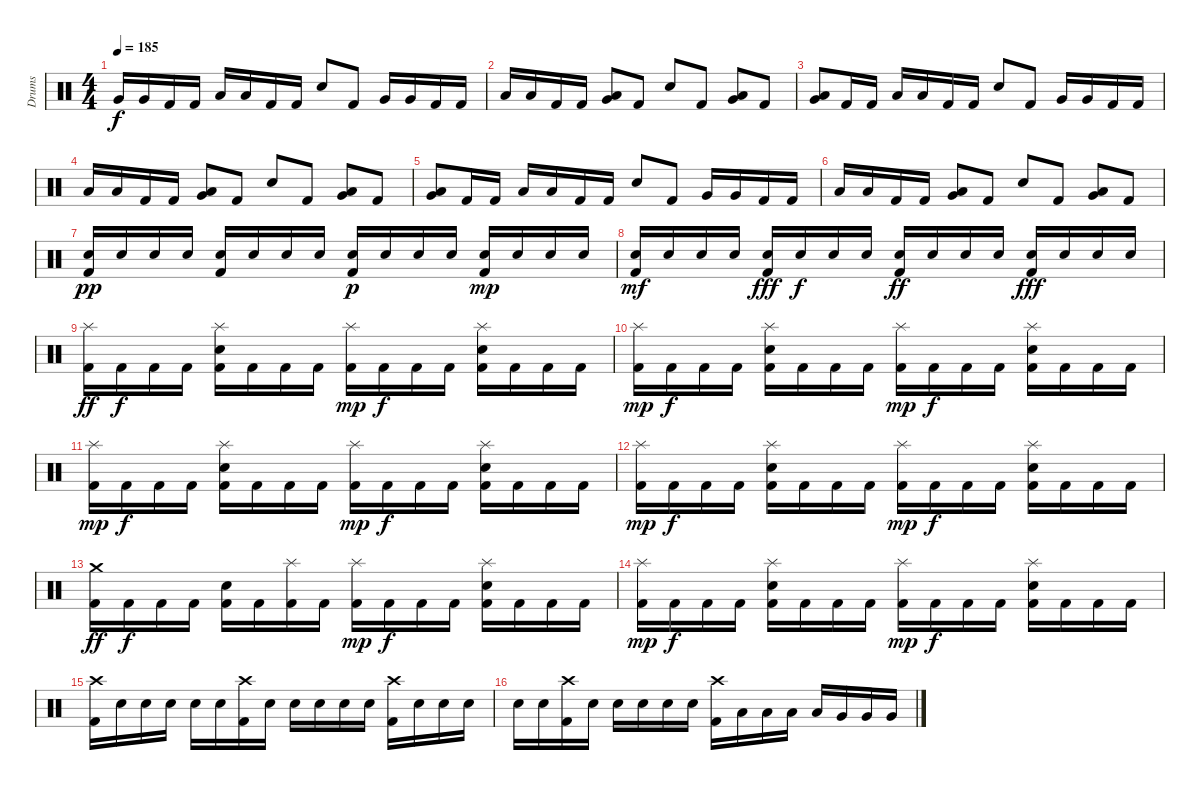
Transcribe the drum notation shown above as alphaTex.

\track ("Drums" "Drums") {instrument percussion}
\staff {score}
\articulation defaults
\ts (4 4)
\tempo 185
\clef neutral
\ks c "Very Low Tom (hit)".16{dy f} "Very Low Tom (hit)".16 "Kick (hit) 2".16 "Kick (hit) 2".16 "Low Floor Tom (hit)".16 "Low Floor Tom (hit)".16 "Kick (hit) 2".16 "Kick (hit) 2".16 "Snare (hit) 2".8 "Kick (hit) 2".8 "Very Low Tom (hit)".16 "Very Low Tom (hit)".16 "Kick (hit) 2".16 "Kick (hit) 2".16
|
"Low Floor Tom (hit)".16 "Low Floor Tom (hit)".16 "Kick (hit) 2".16 "Kick (hit) 2".16 ("Very Low Tom (hit)" "Low Floor Tom (hit)").8 "Kick (hit) 2".8 "Snare (hit) 2".8 "Kick (hit) 2".8 ("Low Floor Tom (hit)" "Very Low Tom (hit)").8 "Kick (hit) 2".8 |
("Low Floor Tom (hit)" "Very Low Tom (hit)").8 "Kick (hit) 2".16 "Kick (hit) 2".16 "Low Floor Tom (hit)".16 "Low Floor Tom (hit)".16 "Kick (hit) 2".16 "Kick (hit) 2".16 "Snare (hit) 2".8 "Kick (hit) 2".8 "Very Low Tom (hit)".16 "Very Low Tom (hit)".16 "Kick (hit) 2".16 "Kick (hit) 2".16 |
"Low Floor Tom (hit)".16 "Low Floor Tom (hit)".16 "Kick (hit) 2".16 "Kick (hit) 2".16 ("Very Low Tom (hit)" "Low Floor Tom (hit)").8 "Kick (hit) 2".8 "Snare (hit) 2".8 "Kick (hit) 2".8 ("Low Floor Tom (hit)" "Very Low Tom (hit)").8 "Kick (hit) 2".8 |
("Low Floor Tom (hit)" "Very Low Tom (hit)").8 "Kick (hit) 2".16 "Kick (hit) 2".16 "Low Floor Tom (hit)".16 "Low Floor Tom (hit)".16 "Kick (hit) 2".16 "Kick (hit) 2".16 "Snare (hit) 2".8 "Kick (hit) 2".8 "Very Low Tom (hit)".16 "Very Low Tom (hit)".16 "Kick (hit) 2".16 "Kick (hit) 2".16 |
"Low Floor Tom (hit)".16 "Low Floor Tom (hit)".16 "Kick (hit) 2".16 "Kick (hit) 2".16 ("Very Low Tom (hit)" "Low Floor Tom (hit)").8 "Kick (hit) 2".8 "Snare (hit) 2".8 "Kick (hit) 2".8 ("Low Floor Tom (hit)" "Very Low Tom (hit)").8 "Kick (hit) 2".8 |
("Kick (hit) 2" "Snare (hit) 2").16{dy pp} "Snare (hit) 2".16 "Snare (hit) 2".16 "Snare (hit) 2".16 ("Kick (hit) 2" "Snare (hit) 2").16 "Snare (hit) 2".16 "Snare (hit) 2".16 "Snare (hit) 2".16 ("Kick (hit) 2" "Snare (hit) 2").16{dy p} "Snare (hit) 2".16 "Snare (hit) 2".16 "Snare (hit) 2".16 ("Kick (hit) 2" "Snare (hit) 2").16{dy mp} "Snare (hit) 2".16 "Snare (hit) 2".16 "Snare (hit) 2".16 |
("Kick (hit) 2" "Snare (hit) 2").16{dy mf} "Snare (hit) 2".16 "Snare (hit) 2".16 "Snare (hit) 2".16 ("Kick (hit) 2" "Snare (hit) 2").16{dy fff} "Snare (hit) 2".16{dy f} "Snare (hit) 2".16 "Snare (hit) 2".16 ("Kick (hit) 2" "Snare (hit) 2").16{dy ff} "Snare (hit) 2".16 "Snare (hit) 2".16 "Snare (hit) 2".16 ("Kick (hit) 2" "Snare (hit) 2").16{dy fff} "Snare (hit) 2".16 "Snare (hit) 2".16 "Snare (hit) 2".16 |
("Splash (hit)" "Kick (hit) 2").16{dy ff} "Kick (hit) 2".16{dy f} "Kick (hit) 2".16 "Kick (hit) 2".16 ("Splash (hit)" "Snare (hit) 2" "Kick (hit) 2").16 "Kick (hit) 2".16 "Kick (hit) 2".16 "Kick (hit) 2".16 ("Splash (hit)" "Kick (hit) 2").16{dy mp} "Kick (hit) 2".16{dy f} "Kick (hit) 2".16 "Kick (hit) 2".16 ("Splash (hit)" "Snare (hit) 2" "Kick (hit) 2").16 "Kick (hit) 2".16 "Kick (hit) 2".16 "Kick (hit) 2".16 |
("Splash (hit)" "Kick (hit) 2").16{dy mp} "Kick (hit) 2".16{dy f} "Kick (hit) 2".16 "Kick (hit) 2".16 ("Splash (hit)" "Snare (hit) 2" "Kick (hit) 2").16 "Kick (hit) 2".16 "Kick (hit) 2".16 "Kick (hit) 2".16 ("Splash (hit)" "Kick (hit) 2").16{dy mp} "Kick (hit) 2".16{dy f} "Kick (hit) 2".16 "Kick (hit) 2".16 ("Splash (hit)" "Snare (hit) 2" "Kick (hit) 2").16 "Kick (hit) 2".16 "Kick (hit) 2".16 "Kick (hit) 2".16 |
("Splash (hit)" "Kick (hit) 2").16{dy mp} "Kick (hit) 2".16{dy f} "Kick (hit) 2".16 "Kick (hit) 2".16 ("Splash (hit)" "Snare (hit) 2" "Kick (hit) 2").16 "Kick (hit) 2".16 "Kick (hit) 2".16 "Kick (hit) 2".16 ("Splash (hit)" "Kick (hit) 2").16{dy mp} "Kick (hit) 2".16{dy f} "Kick (hit) 2".16 "Kick (hit) 2".16 ("Splash (hit)" "Snare (hit) 2" "Kick (hit) 2").16 "Kick (hit) 2".16 "Kick (hit) 2".16 "Kick (hit) 2".16 |
("Splash (hit)" "Kick (hit) 2").16{dy mp} "Kick (hit) 2".16{dy f} "Kick (hit) 2".16 "Kick (hit) 2".16 ("Splash (hit)" "Snare (hit) 2" "Kick (hit) 2").16 "Kick (hit) 2".16 "Kick (hit) 2".16 "Kick (hit) 2".16 ("Splash (hit)" "Kick (hit) 2").16{dy mp} "Kick (hit) 2".16{dy f} "Kick (hit) 2".16 "Kick (hit) 2".16 ("Splash (hit)" "Snare (hit) 2" "Kick (hit) 2").16 "Kick (hit) 2".16 "Kick (hit) 2".16 "Kick (hit) 2".16 |
("Crash medium (hit)" "Kick (hit) 2").16{dy ff} "Kick (hit) 2".16{dy f} "Kick (hit) 2".16 "Kick (hit) 2".16 ("Snare (hit) 2" "Kick (hit) 2").16 "Kick (hit) 2".16 ("Splash (hit)" "Kick (hit) 2").16 "Kick (hit) 2".16 ("Splash (hit)" "Kick (hit) 2").16{dy mp} "Kick (hit) 2".16{dy f} "Kick (hit) 2".16 "Kick (hit) 2".16 ("Splash (hit)" "Snare (hit) 2" "Kick (hit) 2").16 "Kick (hit) 2".16 "Kick (hit) 2".16 "Kick (hit) 2".16 |
("Splash (hit)" "Kick (hit) 2").16{dy mp} "Kick (hit) 2".16{dy f} "Kick (hit) 2".16 "Kick (hit) 2".16 ("Splash (hit)" "Snare (hit) 2" "Kick (hit) 2").16 "Kick (hit) 2".16 "Kick (hit) 2".16 "Kick (hit) 2".16 ("Splash (hit)" "Kick (hit) 2").16{dy mp} "Kick (hit) 2".16{dy f} "Kick (hit) 2".16 "Kick (hit) 2".16 ("Splash (hit)" "Snare (hit) 2" "Kick (hit) 2").16 "Kick (hit) 2".16 "Kick (hit) 2".16 "Kick (hit) 2".16 |
("Crash high (hit)" "Kick (hit) 2").16 "Snare (hit) 2".16 "Snare (hit) 2".16 "Snare (hit) 2".16 "Snare (hit) 2".16 "Snare (hit) 2".16 ("Crash high (hit)" "Kick (hit) 2").16 "Snare (hit) 2".16 "Snare (hit) 2".16 "Snare (hit) 2".16 "Snare (hit) 2".16 "Snare (hit) 2".16 ("Crash high (hit)" "Kick (hit) 2").16 "Snare (hit) 2".16 "Snare (hit) 2".16 "Snare (hit) 2".16 |
"Snare (hit) 2".16 "Snare (hit) 2".16 ("Crash high (hit)" "Kick (hit) 2").16 "Snare (hit) 2".16 "Snare (hit) 2".16 "Snare (hit) 2".16 "Snare (hit) 2".16 "Snare (hit) 2".16 ("Crash high (hit)" "Kick (hit) 2").16 "Low Tom (hit)".16 "Low Tom (hit)".16 "Low Tom (hit)".16 "Low Tom (hit)".16 "Very Low Tom (hit)".16 "Very Low Tom (hit)".16 "Very Low Tom (hit)".16
